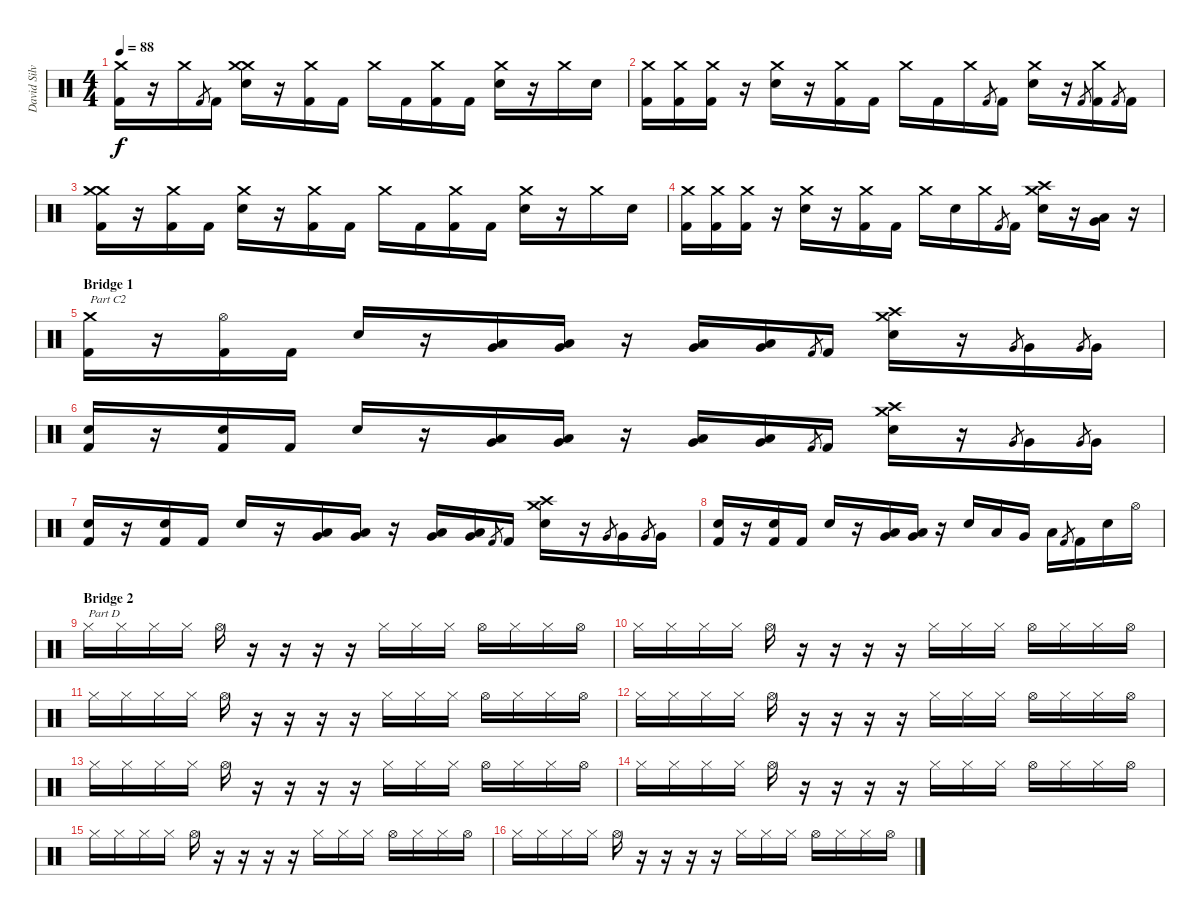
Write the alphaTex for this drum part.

\track ("David Silveria" "David Silv") {instrument percussion}
\staff {score}
\articulation defaults
\ts (4 4)
\tempo 88
\clef neutral
\ks c
("Crash medium (hit)" "Kick (hit) 2").16{dy f} r.16 "Crash medium (hit)".16 "Kick (hit) 2".8{gr} "Kick (hit) 2".16 ("Crash medium (hit)" "Crash medium (hit)" "Snare (hit) 2").16 r.16 ("Crash medium (hit)" "Kick (hit) 2").16 "Kick (hit) 2".16 "Crash medium (hit)".16 "Kick (hit) 2".16 ("Crash medium (hit)" "Kick (hit) 2").16 "Kick (hit) 2".16 ("Crash medium (hit)" "Snare (hit) 2").16 r.16 "Crash medium (hit)".16 "Snare (hit) 2".16 |
("Crash medium (hit)" "Kick (hit) 2").16 ("Crash medium (hit)" "Kick (hit) 2").16 ("Crash medium (hit)" "Kick (hit) 2").16 r.16 ("Crash medium (hit)" "Snare (hit) 2").16 r.16 ("Crash medium (hit)" "Kick (hit) 2").16 "Kick (hit) 2".16 "Crash medium (hit)".16 "Kick (hit) 2".16 "Crash medium (hit)".16 "Kick (hit) 2".8{gr} "Kick (hit) 2".16 ("Crash medium (hit)" "Snare (hit) 2").16 r.16 "Kick (hit) 2".8{gr} ("Crash medium (hit)" "Kick (hit) 2").16 "Kick (hit) 2".8{gr} "Kick (hit) 2".16 |
("Crash medium (hit)" "Crash medium (hit)" "Kick (hit) 2").16 r.16 ("Crash medium (hit)" "Kick (hit) 2").16 "Kick (hit) 2".16 ("Crash medium (hit)" "Snare (hit) 2").16 r.16 ("Crash medium (hit)" "Kick (hit) 2").16 "Kick (hit) 2".16 "Crash medium (hit)".16 "Kick (hit) 2".16 ("Crash medium (hit)" "Kick (hit) 2").16 "Kick (hit) 2".16 ("Crash medium (hit)" "Snare (hit) 2").16 r.16 "Crash medium (hit)".16 "Snare (hit) 2".16 |
("Crash medium (hit)" "Kick (hit) 2").16 ("Crash medium (hit)" "Kick (hit) 2").16 ("Crash medium (hit)" "Kick (hit) 2").16 r.16 ("Crash medium (hit)" "Snare (hit) 2").16 r.16 ("Crash medium (hit)" "Kick (hit) 2").16 "Kick (hit) 2".16 "Crash medium (hit)".16 "Snare (hit) 2".16 "Crash medium (hit)".16 "Kick (hit) 2".8{gr} "Kick (hit) 2".16 ("Crash high (hit)" "Crash medium (hit)" "Snare (hit) 2").16 r.16 ("Very Low Tom (hit)" "Low Floor Tom (hit)").16 r.16 |
\section ("" "Bridge 1")
("Crash medium (hit)" "Kick (hit) 2").16{txt "Part C2"} r.16 ("Hi-Hat (open)" "Kick (hit) 2").16 "Kick (hit) 2".16 "Snare (hit) 2".16 r.16 ("Low Tom (hit)" "Very Low Tom (hit)").16 ("Low Tom (hit)" "Very Low Tom (hit)").16 r.16 ("Very Low Tom (hit)" "Low Floor Tom (hit)").16 ("Very Low Tom (hit)" "Low Floor Tom (hit)").16 "Kick (hit) 2".8{gr} "Kick (hit) 2".16 ("Crash medium (hit)" "Crash high (hit)" "Snare (hit) 2").16 r.16 "Very Low Tom (hit)".8{gr} "Very Low Tom (hit)".16 "Very Low Tom (hit)".8{gr} "Very Low Tom (hit)".16 |
("Snare (hit) 2" "Kick (hit) 2").16 r.16 ("Snare (hit) 2" "Kick (hit) 2").16 "Kick (hit) 2".16 "Snare (hit) 2".16 r.16 ("Low Tom (hit)" "Very Low Tom (hit)").16 ("Low Tom (hit)" "Very Low Tom (hit)").16 r.16 ("Very Low Tom (hit)" "Low Floor Tom (hit)").16 ("Very Low Tom (hit)" "Low Floor Tom (hit)").16 "Kick (hit) 2".8{gr} "Kick (hit) 2".16 ("Crash medium (hit)" "Crash high (hit)" "Snare (hit) 2").16 r.16 "Very Low Tom (hit)".8{gr} "Very Low Tom (hit)".16 "Very Low Tom (hit)".8{gr} "Very Low Tom (hit)".16 |
("Snare (hit) 2" "Kick (hit) 2").16 r.16 ("Snare (hit) 2" "Kick (hit) 2").16 "Kick (hit) 2".16 "Snare (hit) 2".16 r.16 ("Low Tom (hit)" "Very Low Tom (hit)").16 ("Low Tom (hit)" "Very Low Tom (hit)").16 r.16 ("Very Low Tom (hit)" "Low Floor Tom (hit)").16 ("Very Low Tom (hit)" "Low Floor Tom (hit)").16 "Kick (hit) 2".8{gr} "Kick (hit) 2".16 ("Crash medium (hit)" "Crash high (hit)" "Snare (hit) 2").16 r.16 "Very Low Tom (hit)".8{gr} "Very Low Tom (hit)".16 "Very Low Tom (hit)".8{gr} "Very Low Tom (hit)".16 |
("Snare (hit) 2" "Kick (hit) 2").16 r.16 ("Snare (hit) 2" "Kick (hit) 2").16 "Kick (hit) 2".16 "Snare (hit) 2".16 r.16 ("Low Tom (hit)" "Very Low Tom (hit)").16 ("Low Tom (hit)" "Very Low Tom (hit)").16 r.16 "Snare (hit) 2".16 "Low Tom (hit)".16 "Very Low Tom (hit)".16 "Low Floor Tom (hit)".16 "Kick (hit) 2".8{gr} "Kick (hit) 2".16 "Snare (hit) 2".16 "Hi-Hat (open)".16 |
\section ("" "Bridge 2")
"Hi-Hat (closed)".16{txt "Part D"} "Hi-Hat (closed)".16 "Hi-Hat (closed)".16 "Hi-Hat (closed)".16 "Hi-Hat (open)".16 r.16 r.16 r.16 r.16 "Hi-Hat (closed)".16 "Hi-Hat (closed)".16 "Hi-Hat (closed)".16 "Hi-Hat (open)".16 "Hi-Hat (closed)".16 "Hi-Hat (closed)".16 "Hi-Hat (open)".16 |
"Hi-Hat (closed)".16 "Hi-Hat (closed)".16 "Hi-Hat (closed)".16 "Hi-Hat (closed)".16 "Hi-Hat (open)".16 r.16 r.16 r.16 r.16 "Hi-Hat (closed)".16 "Hi-Hat (closed)".16 "Hi-Hat (closed)".16 "Hi-Hat (open)".16 "Hi-Hat (closed)".16 "Hi-Hat (closed)".16 "Hi-Hat (open)".16 |
"Hi-Hat (closed)".16 "Hi-Hat (closed)".16 "Hi-Hat (closed)".16 "Hi-Hat (closed)".16 "Hi-Hat (open)".16 r.16 r.16 r.16 r.16 "Hi-Hat (closed)".16 "Hi-Hat (closed)".16 "Hi-Hat (closed)".16 "Hi-Hat (open)".16 "Hi-Hat (closed)".16 "Hi-Hat (closed)".16 "Hi-Hat (open)".16 |
"Hi-Hat (closed)".16 "Hi-Hat (closed)".16 "Hi-Hat (closed)".16 "Hi-Hat (closed)".16 "Hi-Hat (open)".16 r.16 r.16 r.16 r.16 "Hi-Hat (closed)".16 "Hi-Hat (closed)".16 "Hi-Hat (closed)".16 "Hi-Hat (open)".16 "Hi-Hat (closed)".16 "Hi-Hat (closed)".16 "Hi-Hat (open)".16 |
"Hi-Hat (closed)".16 "Hi-Hat (closed)".16 "Hi-Hat (closed)".16 "Hi-Hat (closed)".16 "Hi-Hat (open)".16 r.16 r.16 r.16 r.16 "Hi-Hat (closed)".16 "Hi-Hat (closed)".16 "Hi-Hat (closed)".16 "Hi-Hat (open)".16 "Hi-Hat (closed)".16 "Hi-Hat (closed)".16 "Hi-Hat (open)".16 |
"Hi-Hat (closed)".16 "Hi-Hat (closed)".16 "Hi-Hat (closed)".16 "Hi-Hat (closed)".16 "Hi-Hat (open)".16 r.16 r.16 r.16 r.16 "Hi-Hat (closed)".16 "Hi-Hat (closed)".16 "Hi-Hat (closed)".16 "Hi-Hat (open)".16 "Hi-Hat (closed)".16 "Hi-Hat (closed)".16 "Hi-Hat (open)".16 |
"Hi-Hat (closed)".16 "Hi-Hat (closed)".16 "Hi-Hat (closed)".16 "Hi-Hat (closed)".16 "Hi-Hat (open)".16 r.16 r.16 r.16 r.16 "Hi-Hat (closed)".16 "Hi-Hat (closed)".16 "Hi-Hat (closed)".16 "Hi-Hat (open)".16 "Hi-Hat (closed)".16 "Hi-Hat (closed)".16 "Hi-Hat (open)".16 |
"Hi-Hat (closed)".16 "Hi-Hat (closed)".16 "Hi-Hat (closed)".16 "Hi-Hat (closed)".16 "Hi-Hat (open)".16 r.16 r.16 r.16 r.16 "Hi-Hat (closed)".16 "Hi-Hat (closed)".16 "Hi-Hat (closed)".16 "Hi-Hat (open)".16 "Hi-Hat (closed)".16 "Hi-Hat (closed)".16 "Hi-Hat (open)".16
